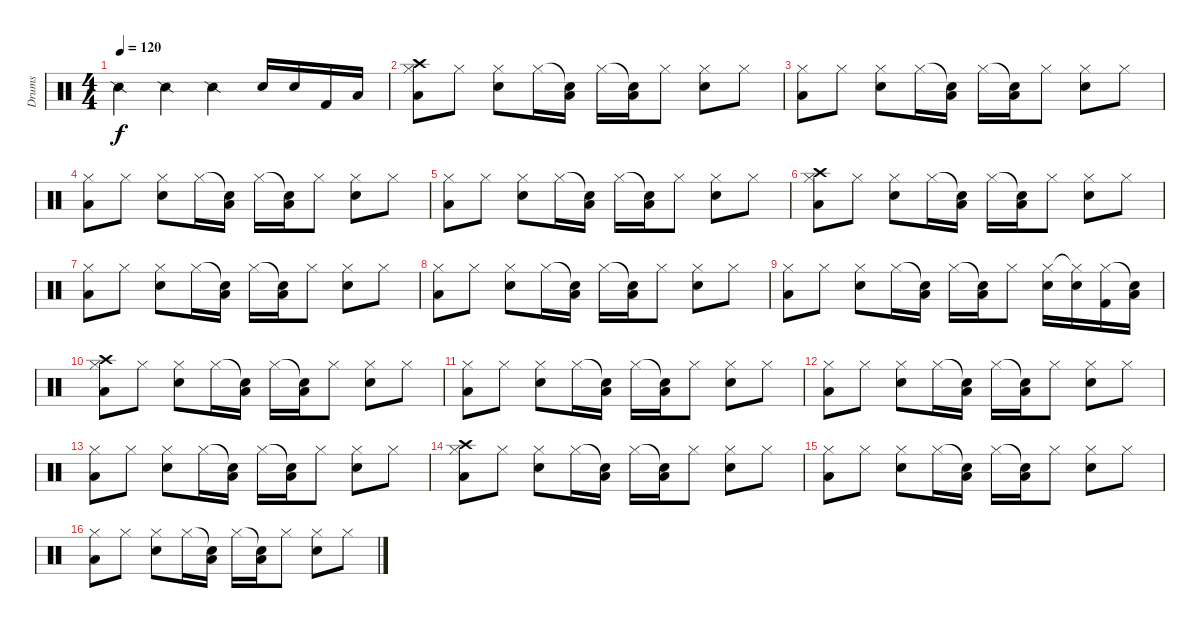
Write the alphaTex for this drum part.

\track ("Drums" "Drums") {instrument percussion}
\staff {score}
\articulation defaults
\ts (4 4)
\tempo 120
\clef neutral
\ks c "Snare (side stick) 2".4{dy f} "Snare (side stick) 2".4 "Snare (side stick) 2".4 "Snare (hit) 2".16 "Snare (hit) 2".16 "Kick (hit) 2".16 "Low Tom (hit)".16
|
("Hi-Hat (closed)" "Low Tom (hit)" "Crash high (hit)").8 "Hi-Hat (closed)".8 ("Hi-Hat (closed)" "Snare (hit) 2").8 "Hi-Hat (closed)".16 ("Snare (hit)"{t} "Low Tom (hit)").16 "Hi-Hat (closed)".16 ("Snare (hit)"{t} "Low Tom (hit)").16 "Hi-Hat (closed)".8 ("Hi-Hat (closed)" "Snare (hit) 2").8 "Hi-Hat (closed)".8 |
("Hi-Hat (closed)" "Low Tom (hit)").8 "Hi-Hat (closed)".8 ("Hi-Hat (closed)" "Snare (hit) 2").8 "Hi-Hat (closed)".16 ("Snare (hit)"{t} "Low Tom (hit)").16 "Hi-Hat (closed)".16 ("Snare (hit)"{t} "Low Tom (hit)").16 "Hi-Hat (closed)".8 ("Hi-Hat (closed)" "Snare (hit) 2").8 "Hi-Hat (closed)".8 |
("Hi-Hat (closed)" "Low Tom (hit)").8 "Hi-Hat (closed)".8 ("Hi-Hat (closed)" "Snare (hit) 2").8 "Hi-Hat (closed)".16 ("Snare (hit)"{t} "Low Tom (hit)").16 "Hi-Hat (closed)".16 ("Snare (hit)"{t} "Low Tom (hit)").16 "Hi-Hat (closed)".8 ("Hi-Hat (closed)" "Snare (hit) 2").8 "Hi-Hat (closed)".8 |
("Hi-Hat (closed)" "Low Tom (hit)").8 "Hi-Hat (closed)".8 ("Hi-Hat (closed)" "Snare (hit) 2").8 "Hi-Hat (closed)".16 ("Snare (hit)"{t} "Low Tom (hit)").16 "Hi-Hat (closed)".16 ("Snare (hit)"{t} "Low Tom (hit)").16 "Hi-Hat (closed)".8 ("Hi-Hat (closed)" "Snare (hit) 2").8 "Hi-Hat (closed)".8 |
("Hi-Hat (closed)" "Low Tom (hit)" "Crash high (hit)").8 "Hi-Hat (closed)".8 ("Hi-Hat (closed)" "Snare (hit) 2").8 "Hi-Hat (closed)".16 ("Snare (hit)"{t} "Low Tom (hit)").16 "Hi-Hat (closed)".16 ("Snare (hit)"{t} "Low Tom (hit)").16 "Hi-Hat (closed)".8 ("Hi-Hat (closed)" "Snare (hit) 2").8 "Hi-Hat (closed)".8 |
("Hi-Hat (closed)" "Low Tom (hit)").8 "Hi-Hat (closed)".8 ("Hi-Hat (closed)" "Snare (hit) 2").8 "Hi-Hat (closed)".16 ("Snare (hit)"{t} "Low Tom (hit)").16 "Hi-Hat (closed)".16 ("Snare (hit)"{t} "Low Tom (hit)").16 "Hi-Hat (closed)".8 ("Hi-Hat (closed)" "Snare (hit) 2").8 "Hi-Hat (closed)".8 |
("Hi-Hat (closed)" "Low Tom (hit)").8 "Hi-Hat (closed)".8 ("Hi-Hat (closed)" "Snare (hit) 2").8 "Hi-Hat (closed)".16 ("Snare (hit)"{t} "Low Tom (hit)").16 "Hi-Hat (closed)".16 ("Snare (hit)"{t} "Low Tom (hit)").16 "Hi-Hat (closed)".8 ("Hi-Hat (closed)" "Snare (hit) 2").8 "Hi-Hat (closed)".8 |
("Hi-Hat (closed)" "Low Tom (hit)").8 "Hi-Hat (closed)".8 ("Hi-Hat (closed)" "Snare (hit) 2").8 "Hi-Hat (closed)".16 ("Snare (hit)"{t} "Low Tom (hit)").16 "Hi-Hat (closed)".16 ("Snare (hit)"{t} "Low Tom (hit)").16 "Hi-Hat (closed)".8 ("Hi-Hat (closed)" "Snare (hit) 2").16 ("Hi-Hat (closed)"{t} "Snare (hit) 2").16 ("Hi-Hat (closed)" "Kick (hit) 2").16 ("Snare (hit)"{t} "Low Tom (hit)").16 |
("Hi-Hat (closed)" "Low Tom (hit)" "Crash high (hit)").8 "Hi-Hat (closed)".8 ("Hi-Hat (closed)" "Snare (hit) 2").8 "Hi-Hat (closed)".16 ("Snare (hit)"{t} "Low Tom (hit)").16 "Hi-Hat (closed)".16 ("Snare (hit)"{t} "Low Tom (hit)").16 "Hi-Hat (closed)".8 ("Hi-Hat (closed)" "Snare (hit) 2").8 "Hi-Hat (closed)".8 |
("Hi-Hat (closed)" "Low Tom (hit)").8 "Hi-Hat (closed)".8 ("Hi-Hat (closed)" "Snare (hit) 2").8 "Hi-Hat (closed)".16 ("Snare (hit)"{t} "Low Tom (hit)").16 "Hi-Hat (closed)".16 ("Snare (hit)"{t} "Low Tom (hit)").16 "Hi-Hat (closed)".8 ("Hi-Hat (closed)" "Snare (hit) 2").8 "Hi-Hat (closed)".8 |
("Hi-Hat (closed)" "Low Tom (hit)").8 "Hi-Hat (closed)".8 ("Hi-Hat (closed)" "Snare (hit) 2").8 "Hi-Hat (closed)".16 ("Snare (hit)"{t} "Low Tom (hit)").16 "Hi-Hat (closed)".16 ("Snare (hit)"{t} "Low Tom (hit)").16 "Hi-Hat (closed)".8 ("Hi-Hat (closed)" "Snare (hit) 2").8 "Hi-Hat (closed)".8 |
("Hi-Hat (closed)" "Low Tom (hit)").8 "Hi-Hat (closed)".8 ("Hi-Hat (closed)" "Snare (hit) 2").8 "Hi-Hat (closed)".16 ("Snare (hit)"{t} "Low Tom (hit)").16 "Hi-Hat (closed)".16 ("Snare (hit)"{t} "Low Tom (hit)").16 "Hi-Hat (closed)".8 ("Hi-Hat (closed)" "Snare (hit) 2").8 "Hi-Hat (closed)".8 |
("Hi-Hat (closed)" "Low Tom (hit)" "Crash high (hit)").8 "Hi-Hat (closed)".8 ("Hi-Hat (closed)" "Snare (hit) 2").8 "Hi-Hat (closed)".16 ("Snare (hit)"{t} "Low Tom (hit)").16 "Hi-Hat (closed)".16 ("Snare (hit)"{t} "Low Tom (hit)").16 "Hi-Hat (closed)".8 ("Hi-Hat (closed)" "Snare (hit) 2").8 "Hi-Hat (closed)".8 |
("Hi-Hat (closed)" "Low Tom (hit)").8 "Hi-Hat (closed)".8 ("Hi-Hat (closed)" "Snare (hit) 2").8 "Hi-Hat (closed)".16 ("Snare (hit)"{t} "Low Tom (hit)").16 "Hi-Hat (closed)".16 ("Snare (hit)"{t} "Low Tom (hit)").16 "Hi-Hat (closed)".8 ("Hi-Hat (closed)" "Snare (hit) 2").8 "Hi-Hat (closed)".8 |
("Hi-Hat (closed)" "Low Tom (hit)").8 "Hi-Hat (closed)".8 ("Hi-Hat (closed)" "Snare (hit) 2").8 "Hi-Hat (closed)".16 ("Snare (hit)"{t} "Low Tom (hit)").16 "Hi-Hat (closed)".16 ("Snare (hit)"{t} "Low Tom (hit)").16 "Hi-Hat (closed)".8 ("Hi-Hat (closed)" "Snare (hit) 2").8 "Hi-Hat (closed)".8
